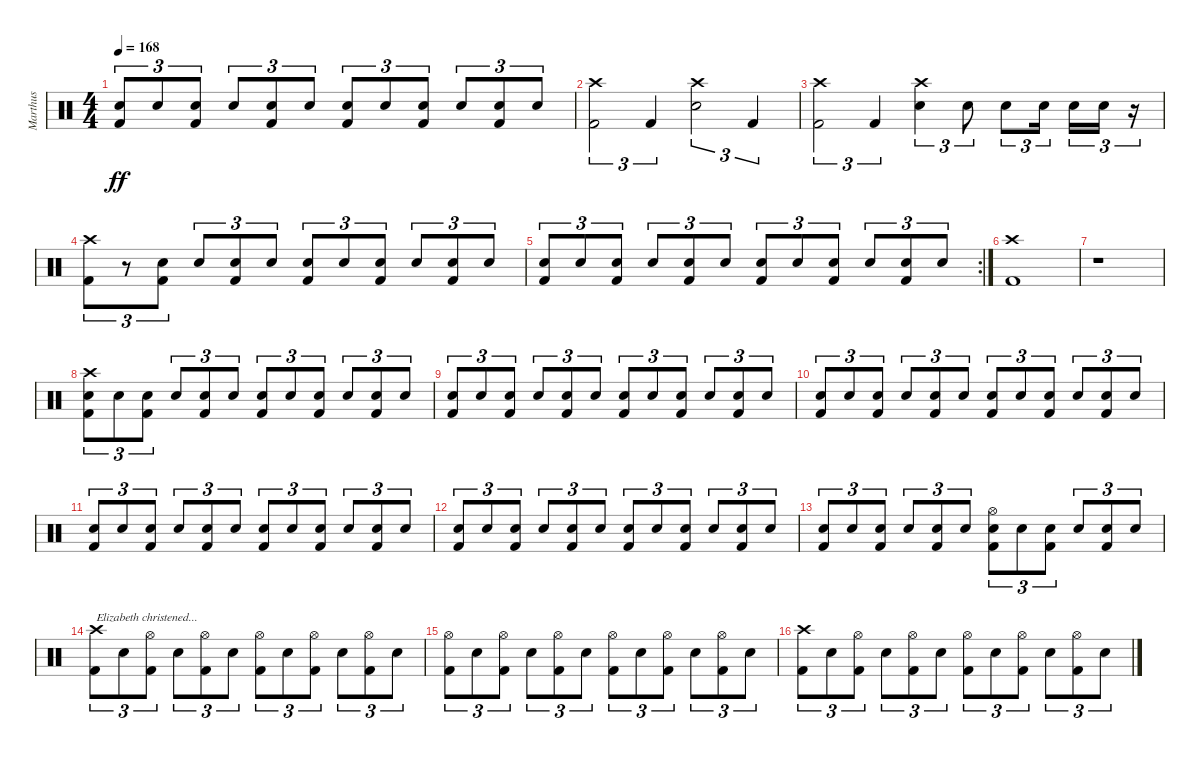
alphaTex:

\track ("Marthus" "Marthus") {instrument percussion}
\staff {score}
\articulation defaults
\ts (4 4)
\tempo 168
\clef neutral
\ks c
("Electric Snare (hit)" "Kick (hit) 2").8{tu (3 2) dy ff} "Electric Snare (hit)".8{tu (3 2)} ("Electric Snare (hit)" "Kick (hit) 2").8{tu (3 2)} "Electric Snare (hit)".8{tu (3 2)} ("Electric Snare (hit)" "Kick (hit) 2").8{tu (3 2)} "Electric Snare (hit)".8{tu (3 2)} ("Electric Snare (hit)" "Kick (hit) 2").8{tu (3 2)} "Electric Snare (hit)".8{tu (3 2)} ("Electric Snare (hit)" "Kick (hit) 2").8{tu (3 2)} "Electric Snare (hit)".8{tu (3 2)} ("Electric Snare (hit)" "Kick (hit) 2").8{tu (3 2)} "Electric Snare (hit)".8{tu (3 2)} |
("Crash high (hit)" "Kick (hit) 2").2{tu (3 2)} "Kick (hit) 2".4{tu (3 2)} ("Crash high (hit)" "Electric Snare (hit)").2{tu (3 2)} "Kick (hit) 2".4{tu (3 2)} |
("Crash high (hit)" "Kick (hit) 2").2{tu (3 2)} "Kick (hit) 2".4{tu (3 2)} ("Crash high (hit)" "Electric Snare (hit)").4{tu (3 2)} "Electric Snare (hit)".8{tu (3 2)} "Electric Snare (hit)".8{tu (3 2)} "Electric Snare (hit)".16{tu (3 2) beam splitsecondary} "Electric Snare (hit)".16{tu (3 2)} "Electric Snare (hit)".16{tu (3 2)} r.16{tu (3 2)} |
("Crash high (hit)" "Kick (hit) 2").8{tu (3 2)} r.8{tu (3 2)} ("Electric Snare (hit)" "Kick (hit) 2").8{tu (3 2)} "Electric Snare (hit)".8{tu (3 2)} ("Electric Snare (hit)" "Kick (hit) 2").8{tu (3 2)} "Electric Snare (hit)".8{tu (3 2)} ("Electric Snare (hit)" "Kick (hit) 2").8{tu (3 2)} "Electric Snare (hit)".8{tu (3 2)} ("Electric Snare (hit)" "Kick (hit) 2").8{tu (3 2)} "Electric Snare (hit)".8{tu (3 2)} ("Electric Snare (hit)" "Kick (hit) 2").8{tu (3 2)} "Electric Snare (hit)".8{tu (3 2)} |
\rc 2
("Electric Snare (hit)" "Kick (hit) 2").8{tu (3 2)} "Electric Snare (hit)".8{tu (3 2)} ("Electric Snare (hit)" "Kick (hit) 2").8{tu (3 2)} "Electric Snare (hit)".8{tu (3 2)} ("Electric Snare (hit)" "Kick (hit) 2").8{tu (3 2)} "Electric Snare (hit)".8{tu (3 2)} ("Electric Snare (hit)" "Kick (hit) 2").8{tu (3 2)} "Electric Snare (hit)".8{tu (3 2)} ("Electric Snare (hit)" "Kick (hit) 2").8{tu (3 2)} "Electric Snare (hit)".8{tu (3 2)} ("Electric Snare (hit)" "Kick (hit) 2").8{tu (3 2)} "Electric Snare (hit)".8{tu (3 2)} |
("Crash high (hit)" "Kick (hit) 2").1 |
r.1 |
("Crash high (hit)" "Electric Snare (hit)" "Kick (hit) 2").8{tu (3 2)} "Electric Snare (hit)".8{tu (3 2)} ("Electric Snare (hit)" "Kick (hit) 2").8{tu (3 2)} "Electric Snare (hit)".8{tu (3 2)} ("Electric Snare (hit)" "Kick (hit) 2").8{tu (3 2)} "Electric Snare (hit)".8{tu (3 2)} ("Electric Snare (hit)" "Kick (hit) 2").8{tu (3 2)} "Electric Snare (hit)".8{tu (3 2)} ("Electric Snare (hit)" "Kick (hit) 2").8{tu (3 2)} "Electric Snare (hit)".8{tu (3 2)} ("Electric Snare (hit)" "Kick (hit) 2").8{tu (3 2)} "Electric Snare (hit)".8{tu (3 2)} |
("Electric Snare (hit)" "Kick (hit) 2").8{tu (3 2)} "Electric Snare (hit)".8{tu (3 2)} ("Electric Snare (hit)" "Kick (hit) 2").8{tu (3 2)} "Electric Snare (hit)".8{tu (3 2)} ("Electric Snare (hit)" "Kick (hit) 2").8{tu (3 2)} "Electric Snare (hit)".8{tu (3 2)} ("Electric Snare (hit)" "Kick (hit) 2").8{tu (3 2)} "Electric Snare (hit)".8{tu (3 2)} ("Electric Snare (hit)" "Kick (hit) 2").8{tu (3 2)} "Electric Snare (hit)".8{tu (3 2)} ("Electric Snare (hit)" "Kick (hit) 2").8{tu (3 2)} "Electric Snare (hit)".8{tu (3 2)} |
("Electric Snare (hit)" "Kick (hit) 2").8{tu (3 2)} "Electric Snare (hit)".8{tu (3 2)} ("Electric Snare (hit)" "Kick (hit) 2").8{tu (3 2)} "Electric Snare (hit)".8{tu (3 2)} ("Electric Snare (hit)" "Kick (hit) 2").8{tu (3 2)} "Electric Snare (hit)".8{tu (3 2)} ("Electric Snare (hit)" "Kick (hit) 2").8{tu (3 2)} "Electric Snare (hit)".8{tu (3 2)} ("Electric Snare (hit)" "Kick (hit) 2").8{tu (3 2)} "Electric Snare (hit)".8{tu (3 2)} ("Electric Snare (hit)" "Kick (hit) 2").8{tu (3 2)} "Electric Snare (hit)".8{tu (3 2)} |
("Electric Snare (hit)" "Kick (hit) 2").8{tu (3 2)} "Electric Snare (hit)".8{tu (3 2)} ("Electric Snare (hit)" "Kick (hit) 2").8{tu (3 2)} "Electric Snare (hit)".8{tu (3 2)} ("Electric Snare (hit)" "Kick (hit) 2").8{tu (3 2)} "Electric Snare (hit)".8{tu (3 2)} ("Electric Snare (hit)" "Kick (hit) 2").8{tu (3 2)} "Electric Snare (hit)".8{tu (3 2)} ("Electric Snare (hit)" "Kick (hit) 2").8{tu (3 2)} "Electric Snare (hit)".8{tu (3 2)} ("Electric Snare (hit)" "Kick (hit) 2").8{tu (3 2)} "Electric Snare (hit)".8{tu (3 2)} |
("Electric Snare (hit)" "Kick (hit) 2").8{tu (3 2)} "Electric Snare (hit)".8{tu (3 2)} ("Electric Snare (hit)" "Kick (hit) 2").8{tu (3 2)} "Electric Snare (hit)".8{tu (3 2)} ("Electric Snare (hit)" "Kick (hit) 2").8{tu (3 2)} "Electric Snare (hit)".8{tu (3 2)} ("Electric Snare (hit)" "Kick (hit) 2").8{tu (3 2)} "Electric Snare (hit)".8{tu (3 2)} ("Electric Snare (hit)" "Kick (hit) 2").8{tu (3 2)} "Electric Snare (hit)".8{tu (3 2)} ("Electric Snare (hit)" "Kick (hit) 2").8{tu (3 2)} "Electric Snare (hit)".8{tu (3 2)} |
("Electric Snare (hit)" "Kick (hit) 2").8{tu (3 2)} "Electric Snare (hit)".8{tu (3 2)} ("Electric Snare (hit)" "Kick (hit) 2").8{tu (3 2)} "Electric Snare (hit)".8{tu (3 2)} ("Electric Snare (hit)" "Kick (hit) 2").8{tu (3 2)} "Electric Snare (hit)".8{tu (3 2)} ("Hi-Hat (open)" "Electric Snare (hit)" "Kick (hit) 2").8{tu (3 2)} "Electric Snare (hit)".8{tu (3 2)} ("Electric Snare (hit)" "Kick (hit) 2").8{tu (3 2)} "Electric Snare (hit)".8{tu (3 2)} ("Electric Snare (hit)" "Kick (hit) 2").8{tu (3 2)} "Electric Snare (hit)".8{tu (3 2)} |
("Crash high (hit)" "Kick (hit) 2").8{tu (3 2) txt "Elizabeth christened..."} "Electric Snare (hit)".8{tu (3 2)} ("Hi-Hat (open)" "Kick (hit) 2").8{tu (3 2)} "Electric Snare (hit)".8{tu (3 2)} ("Hi-Hat (open)" "Kick (hit) 2").8{tu (3 2)} "Electric Snare (hit)".8{tu (3 2)} ("Hi-Hat (open)" "Kick (hit) 2").8{tu (3 2)} "Electric Snare (hit)".8{tu (3 2)} ("Hi-Hat (open)" "Kick (hit) 2").8{tu (3 2)} "Electric Snare (hit)".8{tu (3 2)} ("Hi-Hat (open)" "Kick (hit) 2").8{tu (3 2)} "Electric Snare (hit)".8{tu (3 2)} |
("Hi-Hat (open)" "Kick (hit) 2").8{tu (3 2)} "Electric Snare (hit)".8{tu (3 2)} ("Hi-Hat (open)" "Kick (hit) 2").8{tu (3 2)} "Electric Snare (hit)".8{tu (3 2)} ("Hi-Hat (open)" "Kick (hit) 2").8{tu (3 2)} "Electric Snare (hit)".8{tu (3 2)} ("Hi-Hat (open)" "Kick (hit) 2").8{tu (3 2)} "Electric Snare (hit)".8{tu (3 2)} ("Hi-Hat (open)" "Kick (hit) 2").8{tu (3 2)} "Electric Snare (hit)".8{tu (3 2)} ("Hi-Hat (open)" "Kick (hit) 2").8{tu (3 2)} "Electric Snare (hit)".8{tu (3 2)} |
("Crash high (hit)" "Kick (hit) 2").8{tu (3 2)} "Electric Snare (hit)".8{tu (3 2)} ("Hi-Hat (open)" "Kick (hit) 2").8{tu (3 2)} "Electric Snare (hit)".8{tu (3 2)} ("Hi-Hat (open)" "Kick (hit) 2").8{tu (3 2)} "Electric Snare (hit)".8{tu (3 2)} ("Hi-Hat (open)" "Kick (hit) 2").8{tu (3 2)} "Electric Snare (hit)".8{tu (3 2)} ("Hi-Hat (open)" "Kick (hit) 2").8{tu (3 2)} "Electric Snare (hit)".8{tu (3 2)} ("Hi-Hat (open)" "Kick (hit) 2").8{tu (3 2)} "Electric Snare (hit)".8{tu (3 2)}
